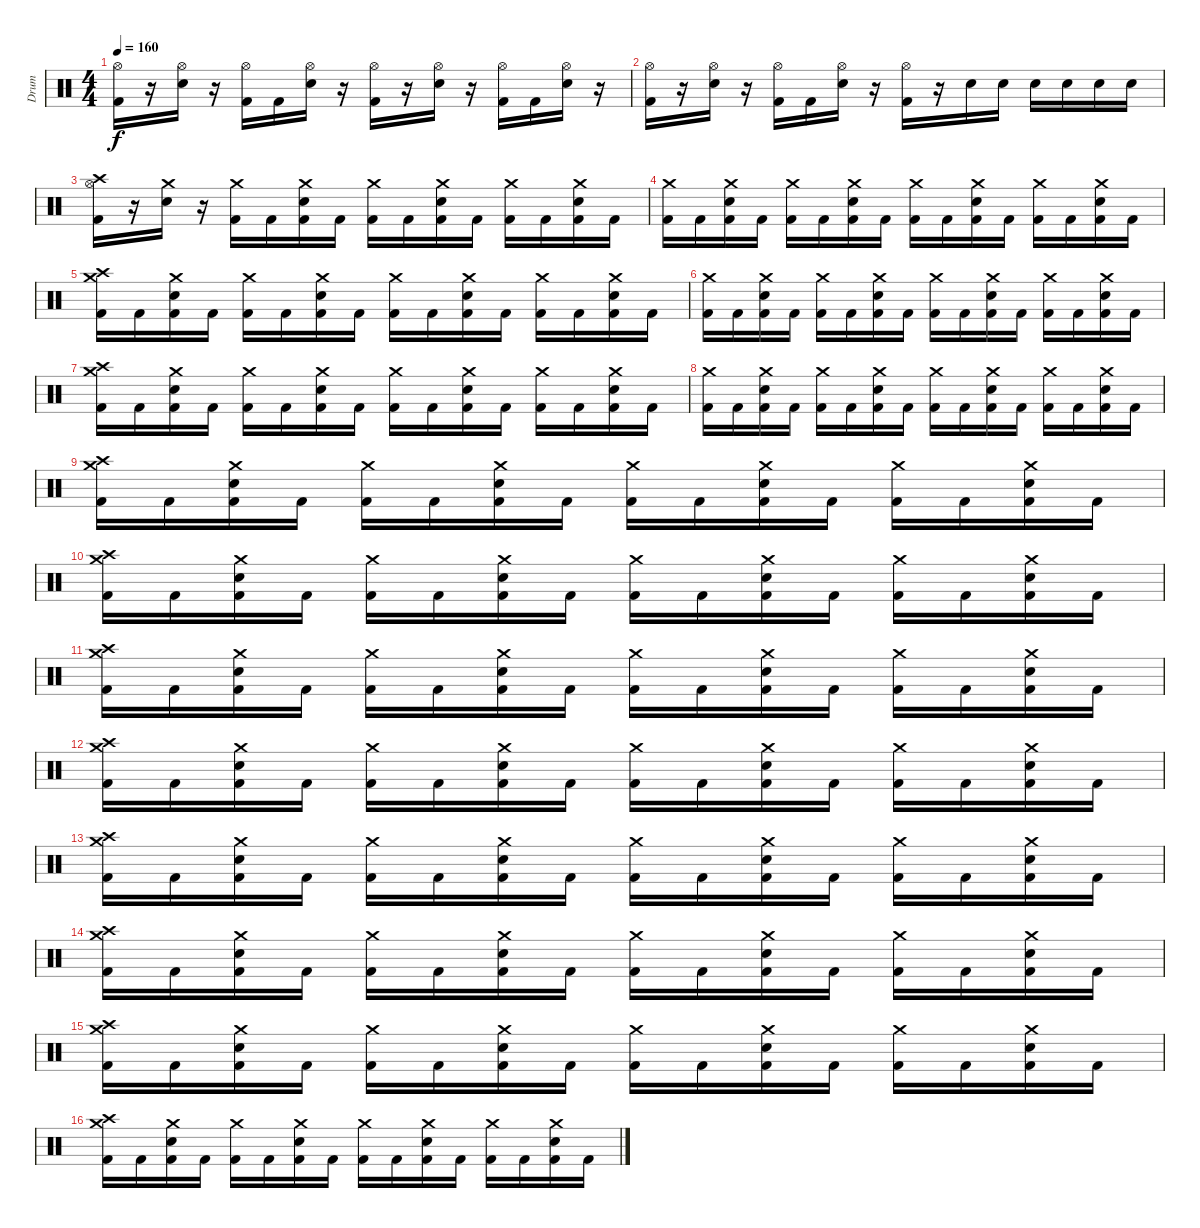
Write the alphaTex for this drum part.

\track ("Drum" "Drum") {instrument percussion}
\staff {score}
\articulation defaults
\ts (4 4)
\tempo 160
\clef neutral
\ks c
("Hi-Hat (open)" "Kick (hit) 2").16{dy f} r.16 ("Hi-Hat (open)" "Electric Snare (hit)").16 r.16 ("Hi-Hat (open)" "Kick (hit) 2").16 "Kick (hit) 2".16 ("Hi-Hat (open)" "Electric Snare (hit)").16 r.16 ("Hi-Hat (open)" "Kick (hit) 2").16 r.16 ("Hi-Hat (open)" "Electric Snare (hit)").16 r.16 ("Hi-Hat (open)" "Kick (hit) 2").16 "Kick (hit) 2".16 ("Hi-Hat (open)" "Electric Snare (hit)").16 r.16 |
("Hi-Hat (open)" "Kick (hit) 2").16 r.16 ("Hi-Hat (open)" "Electric Snare (hit)").16 r.16 ("Hi-Hat (open)" "Kick (hit) 2").16 "Kick (hit) 2".16 ("Hi-Hat (open)" "Electric Snare (hit)").16 r.16 ("Hi-Hat (open)" "Kick (hit) 2").16 r.16 "Electric Snare (hit)".16 "Electric Snare (hit)".16 "Electric Snare (hit)".16 "Electric Snare (hit)".16 "Electric Snare (hit)".16 "Electric Snare (hit)".16 |
("Crash high (hit)" "Hi-Hat (open)" "Kick (hit) 2").16 r.16 ("Crash medium (hit)" "Electric Snare (hit)").16 r.16 ("Crash medium (hit)" "Kick (hit) 2").16 "Kick (hit) 2".16 ("Crash medium (hit)" "Kick (hit) 2" "Electric Snare (hit)").16 "Kick (hit) 2".16 ("Crash medium (hit)" "Kick (hit) 2").16 "Kick (hit) 2".16 ("Crash medium (hit)" "Kick (hit) 2" "Electric Snare (hit)").16 "Kick (hit) 2".16 ("Crash medium (hit)" "Kick (hit) 2").16 "Kick (hit) 2".16 ("Crash medium (hit)" "Kick (hit) 2" "Electric Snare (hit)").16 "Kick (hit) 2".16 |
("Crash medium (hit)" "Kick (hit) 2").16 "Kick (hit) 2".16 ("Crash medium (hit)" "Kick (hit) 2" "Electric Snare (hit)").16 "Kick (hit) 2".16 ("Crash medium (hit)" "Kick (hit) 2").16 "Kick (hit) 2".16 ("Crash medium (hit)" "Kick (hit) 2" "Electric Snare (hit)").16 "Kick (hit) 2".16 ("Crash medium (hit)" "Kick (hit) 2").16 "Kick (hit) 2".16 ("Crash medium (hit)" "Kick (hit) 2" "Electric Snare (hit)").16 "Kick (hit) 2".16 ("Crash medium (hit)" "Kick (hit) 2").16 "Kick (hit) 2".16 ("Crash medium (hit)" "Kick (hit) 2" "Electric Snare (hit)").16 "Kick (hit) 2".16 |
("Crash high (hit)" "Crash medium (hit)" "Kick (hit) 2").16 "Kick (hit) 2".16 ("Crash medium (hit)" "Kick (hit) 2" "Electric Snare (hit)").16 "Kick (hit) 2".16 ("Crash medium (hit)" "Kick (hit) 2").16 "Kick (hit) 2".16 ("Crash medium (hit)" "Kick (hit) 2" "Electric Snare (hit)").16 "Kick (hit) 2".16 ("Crash medium (hit)" "Kick (hit) 2").16 "Kick (hit) 2".16 ("Crash medium (hit)" "Kick (hit) 2" "Electric Snare (hit)").16 "Kick (hit) 2".16 ("Crash medium (hit)" "Kick (hit) 2").16 "Kick (hit) 2".16 ("Crash medium (hit)" "Kick (hit) 2" "Electric Snare (hit)").16 "Kick (hit) 2".16 |
("Crash medium (hit)" "Kick (hit) 2").16 "Kick (hit) 2".16 ("Crash medium (hit)" "Kick (hit) 2" "Electric Snare (hit)").16 "Kick (hit) 2".16 ("Crash medium (hit)" "Kick (hit) 2").16 "Kick (hit) 2".16 ("Crash medium (hit)" "Kick (hit) 2" "Electric Snare (hit)").16 "Kick (hit) 2".16 ("Crash medium (hit)" "Kick (hit) 2").16 "Kick (hit) 2".16 ("Crash medium (hit)" "Kick (hit) 2" "Electric Snare (hit)").16 "Kick (hit) 2".16 ("Crash medium (hit)" "Kick (hit) 2").16 "Kick (hit) 2".16 ("Crash medium (hit)" "Kick (hit) 2" "Electric Snare (hit)").16 "Kick (hit) 2".16 |
("Crash high (hit)" "Crash medium (hit)" "Kick (hit) 2").16 "Kick (hit) 2".16 ("Crash medium (hit)" "Kick (hit) 2" "Electric Snare (hit)").16 "Kick (hit) 2".16 ("Crash medium (hit)" "Kick (hit) 2").16 "Kick (hit) 2".16 ("Crash medium (hit)" "Kick (hit) 2" "Electric Snare (hit)").16 "Kick (hit) 2".16 ("Crash medium (hit)" "Kick (hit) 2").16 "Kick (hit) 2".16 ("Crash medium (hit)" "Kick (hit) 2" "Electric Snare (hit)").16 "Kick (hit) 2".16 ("Crash medium (hit)" "Kick (hit) 2").16 "Kick (hit) 2".16 ("Crash medium (hit)" "Kick (hit) 2" "Electric Snare (hit)").16 "Kick (hit) 2".16 |
("Crash medium (hit)" "Kick (hit) 2").16 "Kick (hit) 2".16 ("Crash medium (hit)" "Kick (hit) 2" "Electric Snare (hit)").16 "Kick (hit) 2".16 ("Crash medium (hit)" "Kick (hit) 2").16 "Kick (hit) 2".16 ("Crash medium (hit)" "Kick (hit) 2" "Electric Snare (hit)").16 "Kick (hit) 2".16 ("Crash medium (hit)" "Kick (hit) 2").16 "Kick (hit) 2".16 ("Crash medium (hit)" "Kick (hit) 2" "Electric Snare (hit)").16 "Kick (hit) 2".16 ("Crash medium (hit)" "Kick (hit) 2").16 "Kick (hit) 2".16 ("Crash medium (hit)" "Kick (hit) 2" "Electric Snare (hit)").16 "Kick (hit) 2".16 |
("Crash high (hit)" "Crash medium (hit)" "Kick (hit) 2").16 "Kick (hit) 2".16 ("Crash medium (hit)" "Kick (hit) 2" "Electric Snare (hit)").16 "Kick (hit) 2".16 ("Crash medium (hit)" "Kick (hit) 2").16 "Kick (hit) 2".16 ("Crash medium (hit)" "Kick (hit) 2" "Electric Snare (hit)").16 "Kick (hit) 2".16 ("Crash medium (hit)" "Kick (hit) 2").16 "Kick (hit) 2".16 ("Crash medium (hit)" "Kick (hit) 2" "Electric Snare (hit)").16 "Kick (hit) 2".16 ("Crash medium (hit)" "Kick (hit) 2").16 "Kick (hit) 2".16 ("Crash medium (hit)" "Kick (hit) 2" "Electric Snare (hit)").16 "Kick (hit) 2".16 |
("Crash high (hit)" "Crash medium (hit)" "Kick (hit) 2").16 "Kick (hit) 2".16 ("Crash medium (hit)" "Kick (hit) 2" "Electric Snare (hit)").16 "Kick (hit) 2".16 ("Crash medium (hit)" "Kick (hit) 2").16 "Kick (hit) 2".16 ("Crash medium (hit)" "Kick (hit) 2" "Electric Snare (hit)").16 "Kick (hit) 2".16 ("Crash medium (hit)" "Kick (hit) 2").16 "Kick (hit) 2".16 ("Crash medium (hit)" "Kick (hit) 2" "Electric Snare (hit)").16 "Kick (hit) 2".16 ("Crash medium (hit)" "Kick (hit) 2").16 "Kick (hit) 2".16 ("Crash medium (hit)" "Kick (hit) 2" "Electric Snare (hit)").16 "Kick (hit) 2".16 |
("Crash high (hit)" "Crash medium (hit)" "Kick (hit) 2").16 "Kick (hit) 2".16 ("Crash medium (hit)" "Kick (hit) 2" "Electric Snare (hit)").16 "Kick (hit) 2".16 ("Crash medium (hit)" "Kick (hit) 2").16 "Kick (hit) 2".16 ("Crash medium (hit)" "Kick (hit) 2" "Electric Snare (hit)").16 "Kick (hit) 2".16 ("Crash medium (hit)" "Kick (hit) 2").16 "Kick (hit) 2".16 ("Crash medium (hit)" "Kick (hit) 2" "Electric Snare (hit)").16 "Kick (hit) 2".16 ("Crash medium (hit)" "Kick (hit) 2").16 "Kick (hit) 2".16 ("Crash medium (hit)" "Kick (hit) 2" "Electric Snare (hit)").16 "Kick (hit) 2".16 |
("Crash high (hit)" "Crash medium (hit)" "Kick (hit) 2").16 "Kick (hit) 2".16 ("Crash medium (hit)" "Kick (hit) 2" "Electric Snare (hit)").16 "Kick (hit) 2".16 ("Crash medium (hit)" "Kick (hit) 2").16 "Kick (hit) 2".16 ("Crash medium (hit)" "Kick (hit) 2" "Electric Snare (hit)").16 "Kick (hit) 2".16 ("Crash medium (hit)" "Kick (hit) 2").16 "Kick (hit) 2".16 ("Crash medium (hit)" "Kick (hit) 2" "Electric Snare (hit)").16 "Kick (hit) 2".16 ("Crash medium (hit)" "Kick (hit) 2").16 "Kick (hit) 2".16 ("Crash medium (hit)" "Kick (hit) 2" "Electric Snare (hit)").16 "Kick (hit) 2".16 |
("Crash high (hit)" "Crash medium (hit)" "Kick (hit) 2").16 "Kick (hit) 2".16 ("Crash medium (hit)" "Kick (hit) 2" "Electric Snare (hit)").16 "Kick (hit) 2".16 ("Crash medium (hit)" "Kick (hit) 2").16 "Kick (hit) 2".16 ("Crash medium (hit)" "Kick (hit) 2" "Electric Snare (hit)").16 "Kick (hit) 2".16 ("Crash medium (hit)" "Kick (hit) 2").16 "Kick (hit) 2".16 ("Crash medium (hit)" "Kick (hit) 2" "Electric Snare (hit)").16 "Kick (hit) 2".16 ("Crash medium (hit)" "Kick (hit) 2").16 "Kick (hit) 2".16 ("Crash medium (hit)" "Kick (hit) 2" "Electric Snare (hit)").16 "Kick (hit) 2".16 |
("Crash high (hit)" "Crash medium (hit)" "Kick (hit) 2").16 "Kick (hit) 2".16 ("Crash medium (hit)" "Kick (hit) 2" "Electric Snare (hit)").16 "Kick (hit) 2".16 ("Crash medium (hit)" "Kick (hit) 2").16 "Kick (hit) 2".16 ("Crash medium (hit)" "Kick (hit) 2" "Electric Snare (hit)").16 "Kick (hit) 2".16 ("Crash medium (hit)" "Kick (hit) 2").16 "Kick (hit) 2".16 ("Crash medium (hit)" "Kick (hit) 2" "Electric Snare (hit)").16 "Kick (hit) 2".16 ("Crash medium (hit)" "Kick (hit) 2").16 "Kick (hit) 2".16 ("Crash medium (hit)" "Kick (hit) 2" "Electric Snare (hit)").16 "Kick (hit) 2".16 |
("Crash high (hit)" "Crash medium (hit)" "Kick (hit) 2").16 "Kick (hit) 2".16 ("Crash medium (hit)" "Kick (hit) 2" "Electric Snare (hit)").16 "Kick (hit) 2".16 ("Crash medium (hit)" "Kick (hit) 2").16 "Kick (hit) 2".16 ("Crash medium (hit)" "Kick (hit) 2" "Electric Snare (hit)").16 "Kick (hit) 2".16 ("Crash medium (hit)" "Kick (hit) 2").16 "Kick (hit) 2".16 ("Crash medium (hit)" "Kick (hit) 2" "Electric Snare (hit)").16 "Kick (hit) 2".16 ("Crash medium (hit)" "Kick (hit) 2").16 "Kick (hit) 2".16 ("Crash medium (hit)" "Kick (hit) 2" "Electric Snare (hit)").16 "Kick (hit) 2".16 |
("Crash high (hit)" "Crash medium (hit)" "Kick (hit) 2").16 "Kick (hit) 2".16 ("Crash medium (hit)" "Kick (hit) 2" "Electric Snare (hit)").16 "Kick (hit) 2".16 ("Crash medium (hit)" "Kick (hit) 2").16 "Kick (hit) 2".16 ("Crash medium (hit)" "Kick (hit) 2" "Electric Snare (hit)").16 "Kick (hit) 2".16 ("Crash medium (hit)" "Kick (hit) 2").16 "Kick (hit) 2".16 ("Crash medium (hit)" "Kick (hit) 2" "Electric Snare (hit)").16 "Kick (hit) 2".16 ("Crash medium (hit)" "Kick (hit) 2").16 "Kick (hit) 2".16 ("Crash medium (hit)" "Kick (hit) 2" "Electric Snare (hit)").16 "Kick (hit) 2".16
